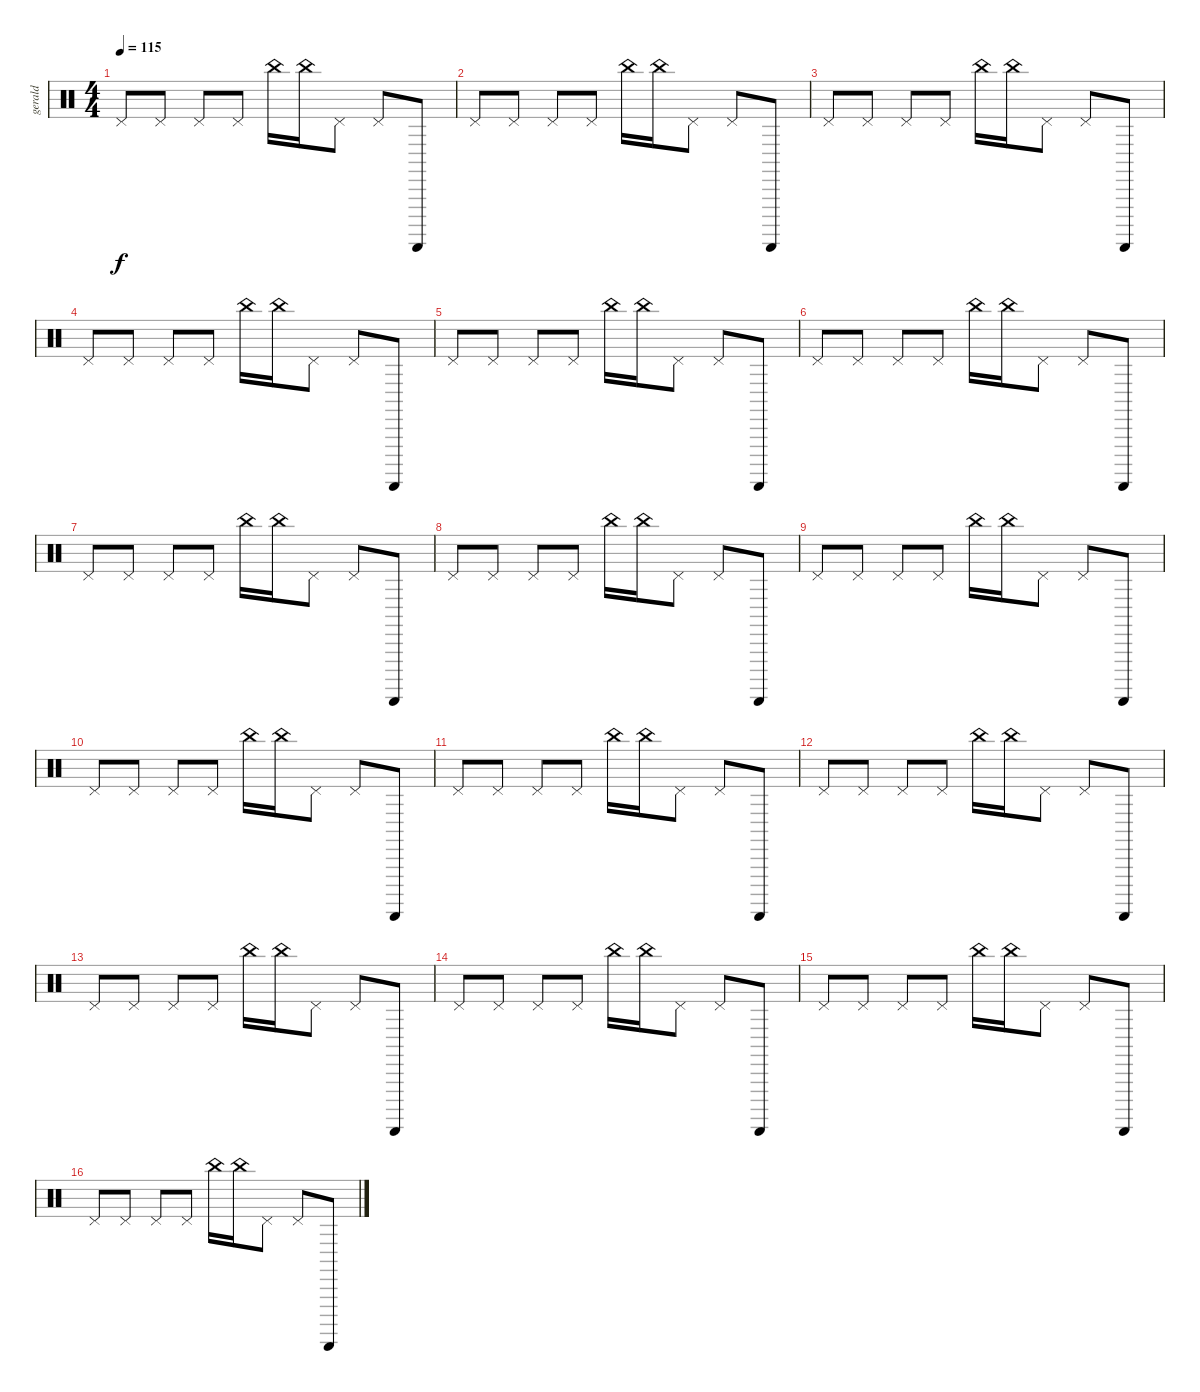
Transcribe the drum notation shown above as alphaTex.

\track ("gerald" "gerald") {instrument percussion}
\staff {score}
\articulation defaults
\ts (4 4)
\tempo 115
\clef neutral
\ks c "Pedal Hi-Hat (hit)".8{dy f} "Pedal Hi-Hat (hit)".8 "Pedal Hi-Hat (hit)".8 "Pedal Hi-Hat (hit)".8 "China (hit)".16 "China (hit)".16 "Pedal Hi-Hat (hit)".8 "Pedal Hi-Hat (hit)".8 "Guiro (scrap-return)".8
|
"Pedal Hi-Hat (hit)".8 "Pedal Hi-Hat (hit)".8 "Pedal Hi-Hat (hit)".8 "Pedal Hi-Hat (hit)".8 "China (hit)".16 "China (hit)".16 "Pedal Hi-Hat (hit)".8 "Pedal Hi-Hat (hit)".8 "Guiro (scrap-return)".8 |
"Pedal Hi-Hat (hit)".8 "Pedal Hi-Hat (hit)".8 "Pedal Hi-Hat (hit)".8 "Pedal Hi-Hat (hit)".8 "China (hit)".16 "China (hit)".16 "Pedal Hi-Hat (hit)".8 "Pedal Hi-Hat (hit)".8 "Guiro (scrap-return)".8 |
"Pedal Hi-Hat (hit)".8 "Pedal Hi-Hat (hit)".8 "Pedal Hi-Hat (hit)".8 "Pedal Hi-Hat (hit)".8 "China (hit)".16 "China (hit)".16 "Pedal Hi-Hat (hit)".8 "Pedal Hi-Hat (hit)".8 "Guiro (scrap-return)".8 |
"Pedal Hi-Hat (hit)".8 "Pedal Hi-Hat (hit)".8 "Pedal Hi-Hat (hit)".8 "Pedal Hi-Hat (hit)".8 "China (hit)".16 "China (hit)".16 "Pedal Hi-Hat (hit)".8 "Pedal Hi-Hat (hit)".8 "Guiro (scrap-return)".8 |
"Pedal Hi-Hat (hit)".8 "Pedal Hi-Hat (hit)".8 "Pedal Hi-Hat (hit)".8 "Pedal Hi-Hat (hit)".8 "China (hit)".16 "China (hit)".16 "Pedal Hi-Hat (hit)".8 "Pedal Hi-Hat (hit)".8 "Guiro (scrap-return)".8 |
"Pedal Hi-Hat (hit)".8 "Pedal Hi-Hat (hit)".8 "Pedal Hi-Hat (hit)".8 "Pedal Hi-Hat (hit)".8 "China (hit)".16 "China (hit)".16 "Pedal Hi-Hat (hit)".8 "Pedal Hi-Hat (hit)".8 "Guiro (scrap-return)".8 |
"Pedal Hi-Hat (hit)".8 "Pedal Hi-Hat (hit)".8 "Pedal Hi-Hat (hit)".8 "Pedal Hi-Hat (hit)".8 "China (hit)".16 "China (hit)".16 "Pedal Hi-Hat (hit)".8 "Pedal Hi-Hat (hit)".8 "Guiro (scrap-return)".8 |
"Pedal Hi-Hat (hit)".8 "Pedal Hi-Hat (hit)".8 "Pedal Hi-Hat (hit)".8 "Pedal Hi-Hat (hit)".8 "China (hit)".16 "China (hit)".16 "Pedal Hi-Hat (hit)".8 "Pedal Hi-Hat (hit)".8 "Guiro (scrap-return)".8 |
"Pedal Hi-Hat (hit)".8 "Pedal Hi-Hat (hit)".8 "Pedal Hi-Hat (hit)".8 "Pedal Hi-Hat (hit)".8 "China (hit)".16 "China (hit)".16 "Pedal Hi-Hat (hit)".8 "Pedal Hi-Hat (hit)".8 "Guiro (scrap-return)".8 |
"Pedal Hi-Hat (hit)".8 "Pedal Hi-Hat (hit)".8 "Pedal Hi-Hat (hit)".8 "Pedal Hi-Hat (hit)".8 "China (hit)".16 "China (hit)".16 "Pedal Hi-Hat (hit)".8 "Pedal Hi-Hat (hit)".8 "Guiro (scrap-return)".8 |
"Pedal Hi-Hat (hit)".8 "Pedal Hi-Hat (hit)".8 "Pedal Hi-Hat (hit)".8 "Pedal Hi-Hat (hit)".8 "China (hit)".16 "China (hit)".16 "Pedal Hi-Hat (hit)".8 "Pedal Hi-Hat (hit)".8 "Guiro (scrap-return)".8 |
"Pedal Hi-Hat (hit)".8 "Pedal Hi-Hat (hit)".8 "Pedal Hi-Hat (hit)".8 "Pedal Hi-Hat (hit)".8 "China (hit)".16 "China (hit)".16 "Pedal Hi-Hat (hit)".8 "Pedal Hi-Hat (hit)".8 "Guiro (scrap-return)".8 |
"Pedal Hi-Hat (hit)".8 "Pedal Hi-Hat (hit)".8 "Pedal Hi-Hat (hit)".8 "Pedal Hi-Hat (hit)".8 "China (hit)".16 "China (hit)".16 "Pedal Hi-Hat (hit)".8 "Pedal Hi-Hat (hit)".8 "Guiro (scrap-return)".8 |
"Pedal Hi-Hat (hit)".8 "Pedal Hi-Hat (hit)".8 "Pedal Hi-Hat (hit)".8 "Pedal Hi-Hat (hit)".8 "China (hit)".16 "China (hit)".16 "Pedal Hi-Hat (hit)".8 "Pedal Hi-Hat (hit)".8 "Guiro (scrap-return)".8 |
"Pedal Hi-Hat (hit)".8 "Pedal Hi-Hat (hit)".8 "Pedal Hi-Hat (hit)".8 "Pedal Hi-Hat (hit)".8 "China (hit)".16 "China (hit)".16 "Pedal Hi-Hat (hit)".8 "Pedal Hi-Hat (hit)".8 "Guiro (scrap-return)".8
